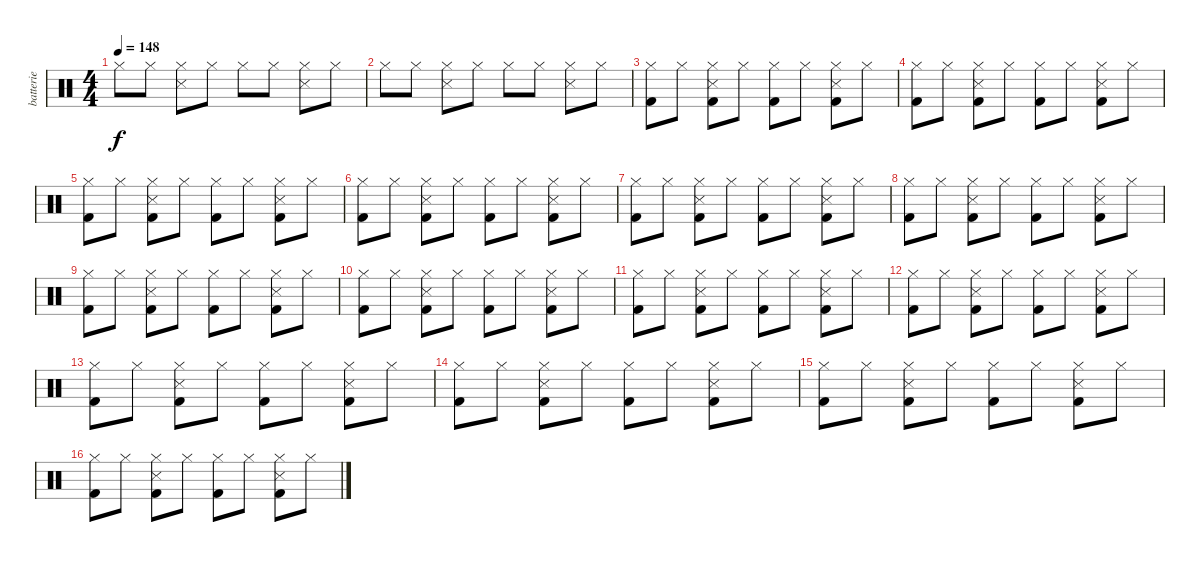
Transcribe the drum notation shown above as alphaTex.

\track ("batterie" "batterie") {instrument percussion}
\staff {score}
\articulation defaults
\ts (4 4)
\tempo 148
\clef neutral
\ks c "Hi-Hat (closed)".8{dy f} "Hi-Hat (closed)".8
("Hi-Hat (closed)" "Snare (side stick) 3").8 "Hi-Hat (closed)".8 "Hi-Hat (closed)".8 "Hi-Hat (closed)".8 ("Hi-Hat (closed)" "Snare (side stick) 3").8 "Hi-Hat (closed)".8 |
"Hi-Hat (closed)".8 "Hi-Hat (closed)".8 ("Hi-Hat (closed)" "Snare (side stick) 3").8 "Hi-Hat (closed)".8 "Hi-Hat (closed)".8 "Hi-Hat (closed)".8 ("Hi-Hat (closed)" "Snare (side stick) 3").8 "Hi-Hat (closed)".8 |
("Hi-Hat (closed)" "Kick (hit) 2").8 "Hi-Hat (closed)".8 ("Hi-Hat (closed)" "Snare (side stick) 3" "Kick (hit) 2").8 "Hi-Hat (closed)".8 ("Hi-Hat (closed)" "Kick (hit) 2").8 "Hi-Hat (closed)".8 ("Hi-Hat (closed)" "Snare (side stick) 3" "Kick (hit) 2").8 "Hi-Hat (closed)".8 |
("Hi-Hat (closed)" "Kick (hit) 2").8 "Hi-Hat (closed)".8 ("Hi-Hat (closed)" "Snare (side stick) 3" "Kick (hit) 2").8 "Hi-Hat (closed)".8 ("Hi-Hat (closed)" "Kick (hit) 2").8 "Hi-Hat (closed)".8 ("Hi-Hat (closed)" "Snare (side stick) 3" "Kick (hit) 2").8 "Hi-Hat (closed)".8 |
("Hi-Hat (closed)" "Kick (hit) 2").8 "Hi-Hat (closed)".8 ("Hi-Hat (closed)" "Snare (side stick) 3" "Kick (hit) 2").8 "Hi-Hat (closed)".8 ("Hi-Hat (closed)" "Kick (hit) 2").8 "Hi-Hat (closed)".8 ("Hi-Hat (closed)" "Snare (side stick) 3" "Kick (hit) 2").8 "Hi-Hat (closed)".8 |
("Hi-Hat (closed)" "Kick (hit) 2").8 "Hi-Hat (closed)".8 ("Hi-Hat (closed)" "Snare (side stick) 3" "Kick (hit) 2").8 "Hi-Hat (closed)".8 ("Hi-Hat (closed)" "Kick (hit) 2").8 "Hi-Hat (closed)".8 ("Hi-Hat (closed)" "Snare (side stick) 3" "Kick (hit) 2").8 "Hi-Hat (closed)".8 |
("Hi-Hat (closed)" "Kick (hit) 2").8 "Hi-Hat (closed)".8 ("Hi-Hat (closed)" "Snare (side stick) 3" "Kick (hit) 2").8 "Hi-Hat (closed)".8 ("Hi-Hat (closed)" "Kick (hit) 2").8 "Hi-Hat (closed)".8 ("Hi-Hat (closed)" "Snare (side stick) 3" "Kick (hit) 2").8 "Hi-Hat (closed)".8 |
("Hi-Hat (closed)" "Kick (hit) 2").8 "Hi-Hat (closed)".8 ("Hi-Hat (closed)" "Snare (side stick) 3" "Kick (hit) 2").8 "Hi-Hat (closed)".8 ("Hi-Hat (closed)" "Kick (hit) 2").8 "Hi-Hat (closed)".8 ("Hi-Hat (closed)" "Snare (side stick) 3" "Kick (hit) 2").8 "Hi-Hat (closed)".8 |
("Hi-Hat (closed)" "Kick (hit) 2").8 "Hi-Hat (closed)".8 ("Hi-Hat (closed)" "Snare (side stick) 3" "Kick (hit) 2").8 "Hi-Hat (closed)".8 ("Hi-Hat (closed)" "Kick (hit) 2").8 "Hi-Hat (closed)".8 ("Hi-Hat (closed)" "Snare (side stick) 3" "Kick (hit) 2").8 "Hi-Hat (closed)".8 |
("Hi-Hat (closed)" "Kick (hit) 2").8 "Hi-Hat (closed)".8 ("Hi-Hat (closed)" "Snare (side stick) 3" "Kick (hit) 2").8 "Hi-Hat (closed)".8 ("Hi-Hat (closed)" "Kick (hit) 2").8 "Hi-Hat (closed)".8 ("Hi-Hat (closed)" "Snare (side stick) 3" "Kick (hit) 2").8 "Hi-Hat (closed)".8 |
("Hi-Hat (closed)" "Kick (hit) 2").8 "Hi-Hat (closed)".8 ("Hi-Hat (closed)" "Snare (side stick) 3" "Kick (hit) 2").8 "Hi-Hat (closed)".8 ("Hi-Hat (closed)" "Kick (hit) 2").8 "Hi-Hat (closed)".8 ("Hi-Hat (closed)" "Snare (side stick) 3" "Kick (hit) 2").8 "Hi-Hat (closed)".8 |
("Hi-Hat (closed)" "Kick (hit) 2").8 "Hi-Hat (closed)".8 ("Hi-Hat (closed)" "Snare (side stick) 3" "Kick (hit) 2").8 "Hi-Hat (closed)".8 ("Hi-Hat (closed)" "Kick (hit) 2").8 "Hi-Hat (closed)".8 ("Hi-Hat (closed)" "Snare (side stick) 3" "Kick (hit) 2").8 "Hi-Hat (closed)".8 |
("Hi-Hat (closed)" "Kick (hit) 2").8 "Hi-Hat (closed)".8 ("Hi-Hat (closed)" "Snare (side stick) 3" "Kick (hit) 2").8 "Hi-Hat (closed)".8 ("Hi-Hat (closed)" "Kick (hit) 2").8 "Hi-Hat (closed)".8 ("Hi-Hat (closed)" "Snare (side stick) 3" "Kick (hit) 2").8 "Hi-Hat (closed)".8 |
("Hi-Hat (closed)" "Kick (hit) 2").8 "Hi-Hat (closed)".8 ("Hi-Hat (closed)" "Snare (side stick) 3" "Kick (hit) 2").8 "Hi-Hat (closed)".8 ("Hi-Hat (closed)" "Kick (hit) 2").8 "Hi-Hat (closed)".8 ("Hi-Hat (closed)" "Snare (side stick) 3" "Kick (hit) 2").8 "Hi-Hat (closed)".8 |
("Hi-Hat (closed)" "Kick (hit) 2").8 "Hi-Hat (closed)".8 ("Hi-Hat (closed)" "Snare (side stick) 3" "Kick (hit) 2").8 "Hi-Hat (closed)".8 ("Hi-Hat (closed)" "Kick (hit) 2").8 "Hi-Hat (closed)".8 ("Hi-Hat (closed)" "Snare (side stick) 3" "Kick (hit) 2").8 "Hi-Hat (closed)".8 |
("Hi-Hat (closed)" "Kick (hit) 2").8 "Hi-Hat (closed)".8 ("Hi-Hat (closed)" "Snare (side stick) 3" "Kick (hit) 2").8 "Hi-Hat (closed)".8 ("Hi-Hat (closed)" "Kick (hit) 2").8 "Hi-Hat (closed)".8 ("Hi-Hat (closed)" "Snare (side stick) 3" "Kick (hit) 2").8 "Hi-Hat (closed)".8
